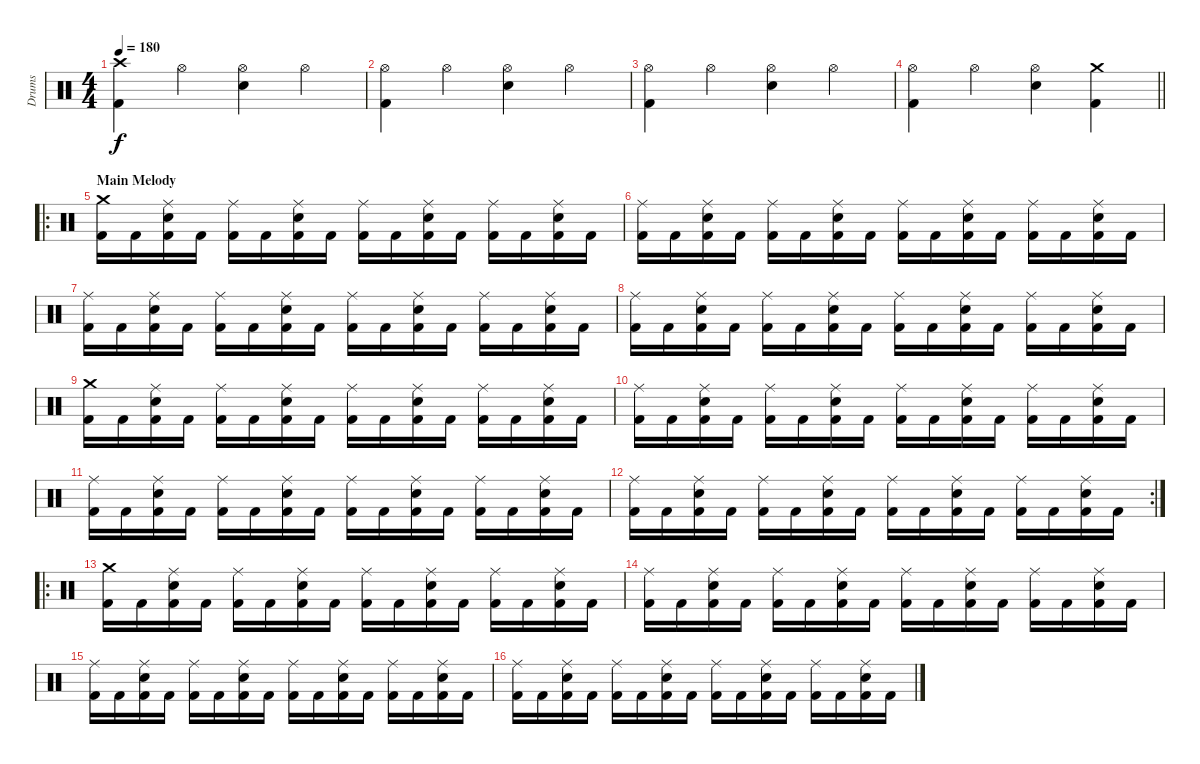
\track ("Drums" "Drums") {instrument percussion}
\staff {score}
\articulation defaults
\ts (4 4)
\tempo 180
\clef neutral
\ks c
("Crash high (hit)" "Kick (hit) 2").4{dy f} "Hi-Hat (open)".4 ("Hi-Hat (open)" "Electric Snare (hit)").4 "Hi-Hat (open)".4 |
("Hi-Hat (open)" "Kick (hit) 2").4 "Hi-Hat (open)".4 ("Hi-Hat (open)" "Electric Snare (hit)").4 "Hi-Hat (open)".4 |
("Hi-Hat (open)" "Kick (hit) 2").4 "Hi-Hat (open)".4 ("Hi-Hat (open)" "Electric Snare (hit)").4 "Hi-Hat (open)".4 |
\barLineRight lightlight
("Hi-Hat (open)" "Kick (hit) 2").4 "Hi-Hat (open)".4 ("Hi-Hat (open)" "Electric Snare (hit)").4 ("Crash medium (hit)" "Kick (hit) 2").4 |
\ro
\section ("" "Main Melody")
("Crash medium (hit)" "Kick (hit) 2").16 "Kick (hit) 2".16 ("Ride (middle)" "Electric Snare (hit)" "Kick (hit) 2").16 "Kick (hit) 2".16 ("Ride (middle)" "Kick (hit) 2").16 "Kick (hit) 2".16 ("Ride (middle)" "Electric Snare (hit)" "Kick (hit) 2").16 "Kick (hit) 2".16 ("Ride (middle)" "Kick (hit) 2").16 "Kick (hit) 2".16 ("Ride (middle)" "Electric Snare (hit)" "Kick (hit) 2").16 "Kick (hit) 2".16 ("Ride (middle)" "Kick (hit) 2").16 "Kick (hit) 2".16 ("Ride (middle)" "Electric Snare (hit)" "Kick (hit) 2").16 "Kick (hit) 2".16 |
("Ride (middle)" "Kick (hit) 2").16 "Kick (hit) 2".16 ("Ride (middle)" "Electric Snare (hit)" "Kick (hit) 2").16 "Kick (hit) 2".16 ("Ride (middle)" "Kick (hit) 2").16 "Kick (hit) 2".16 ("Ride (middle)" "Electric Snare (hit)" "Kick (hit) 2").16 "Kick (hit) 2".16 ("Ride (middle)" "Kick (hit) 2").16 "Kick (hit) 2".16 ("Ride (middle)" "Electric Snare (hit)" "Kick (hit) 2").16 "Kick (hit) 2".16 ("Ride (middle)" "Kick (hit) 2").16 "Kick (hit) 2".16 ("Ride (middle)" "Electric Snare (hit)" "Kick (hit) 2").16 "Kick (hit) 2".16 |
("Ride (middle)" "Kick (hit) 2").16 "Kick (hit) 2".16 ("Ride (middle)" "Electric Snare (hit)" "Kick (hit) 2").16 "Kick (hit) 2".16 ("Ride (middle)" "Kick (hit) 2").16 "Kick (hit) 2".16 ("Ride (middle)" "Electric Snare (hit)" "Kick (hit) 2").16 "Kick (hit) 2".16 ("Ride (middle)" "Kick (hit) 2").16 "Kick (hit) 2".16 ("Ride (middle)" "Electric Snare (hit)" "Kick (hit) 2").16 "Kick (hit) 2".16 ("Ride (middle)" "Kick (hit) 2").16 "Kick (hit) 2".16 ("Ride (middle)" "Electric Snare (hit)" "Kick (hit) 2").16 "Kick (hit) 2".16 |
("Ride (middle)" "Kick (hit) 2").16 "Kick (hit) 2".16 ("Ride (middle)" "Electric Snare (hit)" "Kick (hit) 2").16 "Kick (hit) 2".16 ("Ride (middle)" "Kick (hit) 2").16 "Kick (hit) 2".16 ("Ride (middle)" "Electric Snare (hit)" "Kick (hit) 2").16 "Kick (hit) 2".16 ("Ride (middle)" "Kick (hit) 2").16 "Kick (hit) 2".16 ("Ride (middle)" "Electric Snare (hit)" "Kick (hit) 2").16 "Kick (hit) 2".16 ("Ride (middle)" "Kick (hit) 2").16 "Kick (hit) 2".16 ("Ride (middle)" "Electric Snare (hit)" "Kick (hit) 2").16 "Kick (hit) 2".16 |
("Crash medium (hit)" "Kick (hit) 2").16 "Kick (hit) 2".16 ("Ride (middle)" "Electric Snare (hit)" "Kick (hit) 2").16 "Kick (hit) 2".16 ("Ride (middle)" "Kick (hit) 2").16 "Kick (hit) 2".16 ("Ride (middle)" "Electric Snare (hit)" "Kick (hit) 2").16 "Kick (hit) 2".16 ("Ride (middle)" "Kick (hit) 2").16 "Kick (hit) 2".16 ("Ride (middle)" "Electric Snare (hit)" "Kick (hit) 2").16 "Kick (hit) 2".16 ("Ride (middle)" "Kick (hit) 2").16 "Kick (hit) 2".16 ("Ride (middle)" "Electric Snare (hit)" "Kick (hit) 2").16 "Kick (hit) 2".16 |
("Ride (middle)" "Kick (hit) 2").16 "Kick (hit) 2".16 ("Ride (middle)" "Electric Snare (hit)" "Kick (hit) 2").16 "Kick (hit) 2".16 ("Ride (middle)" "Kick (hit) 2").16 "Kick (hit) 2".16 ("Ride (middle)" "Electric Snare (hit)" "Kick (hit) 2").16 "Kick (hit) 2".16 ("Ride (middle)" "Kick (hit) 2").16 "Kick (hit) 2".16 ("Ride (middle)" "Electric Snare (hit)" "Kick (hit) 2").16 "Kick (hit) 2".16 ("Ride (middle)" "Kick (hit) 2").16 "Kick (hit) 2".16 ("Ride (middle)" "Electric Snare (hit)" "Kick (hit) 2").16 "Kick (hit) 2".16 |
("Ride (middle)" "Kick (hit) 2").16 "Kick (hit) 2".16 ("Ride (middle)" "Electric Snare (hit)" "Kick (hit) 2").16 "Kick (hit) 2".16 ("Ride (middle)" "Kick (hit) 2").16 "Kick (hit) 2".16 ("Ride (middle)" "Electric Snare (hit)" "Kick (hit) 2").16 "Kick (hit) 2".16 ("Ride (middle)" "Kick (hit) 2").16 "Kick (hit) 2".16 ("Ride (middle)" "Electric Snare (hit)" "Kick (hit) 2").16 "Kick (hit) 2".16 ("Ride (middle)" "Kick (hit) 2").16 "Kick (hit) 2".16 ("Ride (middle)" "Electric Snare (hit)" "Kick (hit) 2").16 "Kick (hit) 2".16 |
\rc 2
("Ride (middle)" "Kick (hit) 2").16 "Kick (hit) 2".16 ("Ride (middle)" "Electric Snare (hit)" "Kick (hit) 2").16 "Kick (hit) 2".16 ("Ride (middle)" "Kick (hit) 2").16 "Kick (hit) 2".16 ("Ride (middle)" "Electric Snare (hit)" "Kick (hit) 2").16 "Kick (hit) 2".16 ("Ride (middle)" "Kick (hit) 2").16 "Kick (hit) 2".16 ("Ride (middle)" "Electric Snare (hit)" "Kick (hit) 2").16 "Kick (hit) 2".16 ("Ride (middle)" "Kick (hit) 2").16 "Kick (hit) 2".16 ("Ride (middle)" "Electric Snare (hit)" "Kick (hit) 2").16 "Kick (hit) 2".16 |
\ro
("Crash medium (hit)" "Kick (hit) 2").16 "Kick (hit) 2".16 ("Ride (middle)" "Electric Snare (hit)" "Kick (hit) 2").16 "Kick (hit) 2".16 ("Ride (middle)" "Kick (hit) 2").16 "Kick (hit) 2".16 ("Ride (middle)" "Electric Snare (hit)" "Kick (hit) 2").16 "Kick (hit) 2".16 ("Ride (middle)" "Kick (hit) 2").16 "Kick (hit) 2".16 ("Ride (middle)" "Electric Snare (hit)" "Kick (hit) 2").16 "Kick (hit) 2".16 ("Ride (middle)" "Kick (hit) 2").16 "Kick (hit) 2".16 ("Ride (middle)" "Electric Snare (hit)" "Kick (hit) 2").16 "Kick (hit) 2".16 |
("Ride (middle)" "Kick (hit) 2").16 "Kick (hit) 2".16 ("Ride (middle)" "Electric Snare (hit)" "Kick (hit) 2").16 "Kick (hit) 2".16 ("Ride (middle)" "Kick (hit) 2").16 "Kick (hit) 2".16 ("Ride (middle)" "Electric Snare (hit)" "Kick (hit) 2").16 "Kick (hit) 2".16 ("Ride (middle)" "Kick (hit) 2").16 "Kick (hit) 2".16 ("Ride (middle)" "Electric Snare (hit)" "Kick (hit) 2").16 "Kick (hit) 2".16 ("Ride (middle)" "Kick (hit) 2").16 "Kick (hit) 2".16 ("Ride (middle)" "Electric Snare (hit)" "Kick (hit) 2").16 "Kick (hit) 2".16 |
("Ride (middle)" "Kick (hit) 2").16 "Kick (hit) 2".16 ("Ride (middle)" "Electric Snare (hit)" "Kick (hit) 2").16 "Kick (hit) 2".16 ("Ride (middle)" "Kick (hit) 2").16 "Kick (hit) 2".16 ("Ride (middle)" "Electric Snare (hit)" "Kick (hit) 2").16 "Kick (hit) 2".16 ("Ride (middle)" "Kick (hit) 2").16 "Kick (hit) 2".16 ("Ride (middle)" "Electric Snare (hit)" "Kick (hit) 2").16 "Kick (hit) 2".16 ("Ride (middle)" "Kick (hit) 2").16 "Kick (hit) 2".16 ("Ride (middle)" "Electric Snare (hit)" "Kick (hit) 2").16 "Kick (hit) 2".16 |
("Ride (middle)" "Kick (hit) 2").16 "Kick (hit) 2".16 ("Ride (middle)" "Electric Snare (hit)" "Kick (hit) 2").16 "Kick (hit) 2".16 ("Ride (middle)" "Kick (hit) 2").16 "Kick (hit) 2".16 ("Ride (middle)" "Electric Snare (hit)" "Kick (hit) 2").16 "Kick (hit) 2".16 ("Ride (middle)" "Kick (hit) 2").16 "Kick (hit) 2".16 ("Ride (middle)" "Electric Snare (hit)" "Kick (hit) 2").16 "Kick (hit) 2".16 ("Ride (middle)" "Kick (hit) 2").16 "Kick (hit) 2".16 ("Ride (middle)" "Electric Snare (hit)" "Kick (hit) 2").16 "Kick (hit) 2".16
